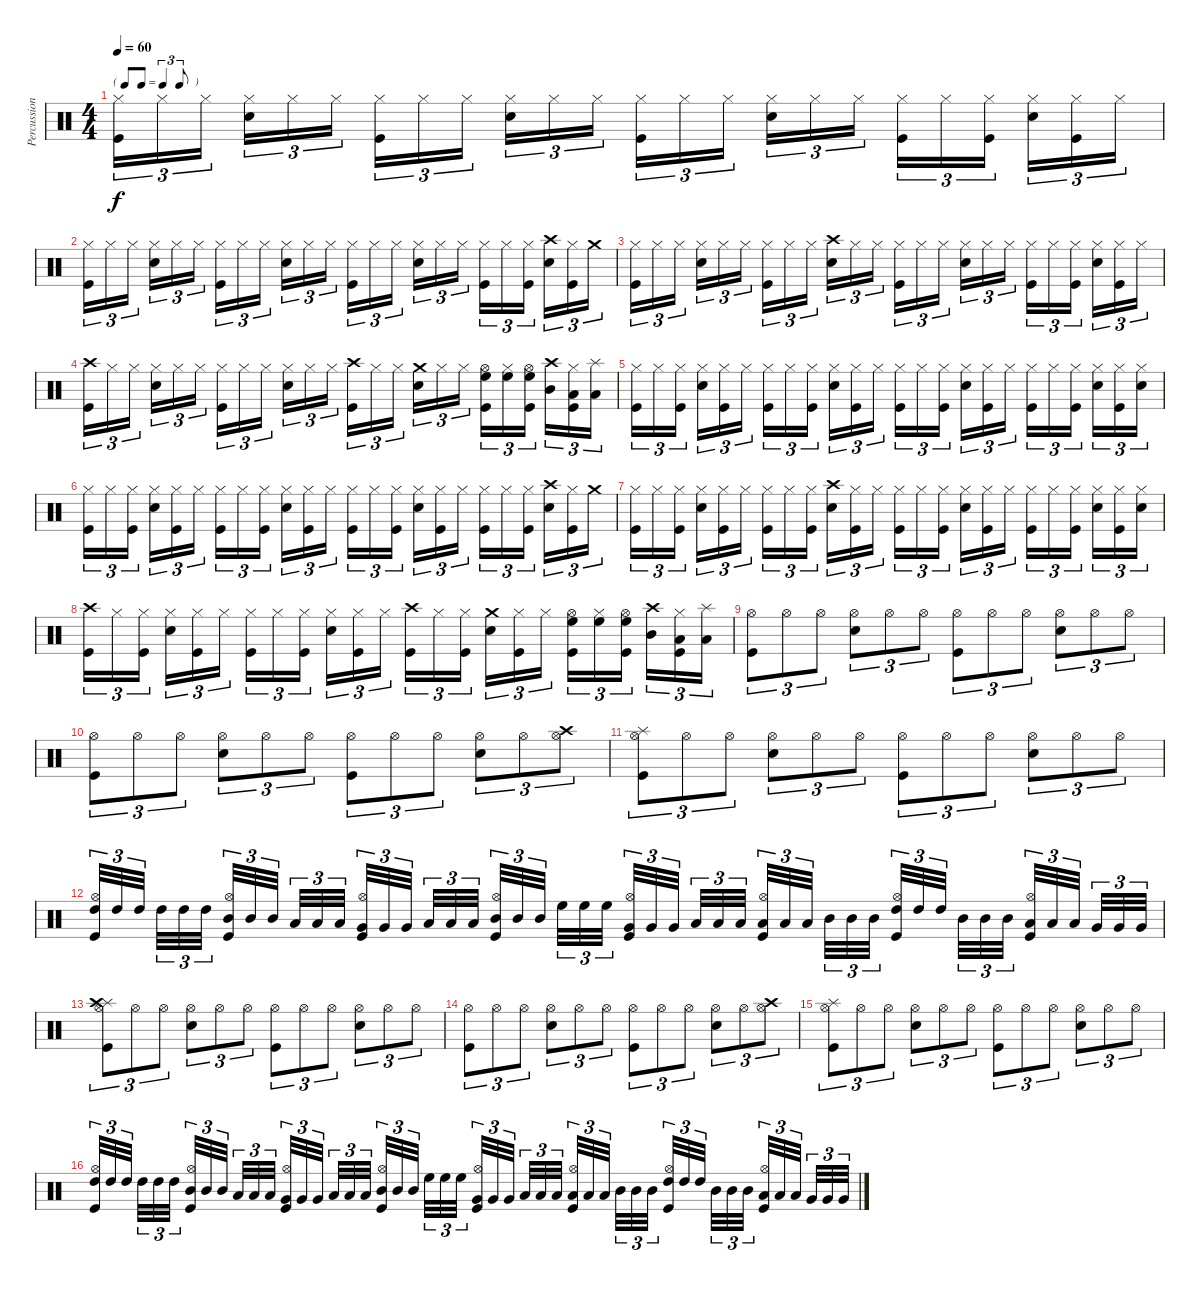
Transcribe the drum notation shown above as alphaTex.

\track ("Percussion" "Percussion") {instrument percussion}
\staff {score}
\articulation defaults
\ts (4 4)
\tf triplet8th
\tempo 60
\clef neutral
\ks c
("Hi-Hat (closed)" "Kick (hit)").16{tu (3 2) dy f} "Hi-Hat (closed)".16{tu (3 2)} "Hi-Hat (closed)".16{tu (3 2)} ("Hi-Hat (closed)" "Snare (hit) 2").16{tu (3 2)} "Hi-Hat (closed)".16{tu (3 2)} "Hi-Hat (closed)".16{tu (3 2)} ("Hi-Hat (closed)" "Kick (hit)").16{tu (3 2)} "Hi-Hat (closed)".16{tu (3 2)} "Hi-Hat (closed)".16{tu (3 2)} ("Hi-Hat (closed)" "Snare (hit) 2").16{tu (3 2)} "Hi-Hat (closed)".16{tu (3 2)} "Hi-Hat (closed)".16{tu (3 2)} ("Hi-Hat (closed)" "Kick (hit)").16{tu (3 2)} "Hi-Hat (closed)".16{tu (3 2)} "Hi-Hat (closed)".16{tu (3 2)} ("Hi-Hat (closed)" "Snare (hit) 2").16{tu (3 2)} "Hi-Hat (closed)".16{tu (3 2)} "Hi-Hat (closed)".16{tu (3 2)} ("Hi-Hat (closed)" "Kick (hit)").16{tu (3 2)} "Hi-Hat (closed)".16{tu (3 2)} ("Hi-Hat (closed)" "Kick (hit)").16{tu (3 2)} ("Hi-Hat (closed)" "Snare (hit) 2").16{tu (3 2)} ("Hi-Hat (closed)" "Kick (hit)").16{tu (3 2)} "Hi-Hat (closed)".16{tu (3 2)} |
("Hi-Hat (closed)" "Kick (hit)").16{tu (3 2)} "Hi-Hat (closed)".16{tu (3 2)} "Hi-Hat (closed)".16{tu (3 2)} ("Hi-Hat (closed)" "Snare (hit) 2").16{tu (3 2)} "Hi-Hat (closed)".16{tu (3 2)} "Hi-Hat (closed)".16{tu (3 2)} ("Hi-Hat (closed)" "Kick (hit)").16{tu (3 2)} "Hi-Hat (closed)".16{tu (3 2)} "Hi-Hat (closed)".16{tu (3 2)} ("Hi-Hat (closed)" "Snare (hit) 2").16{tu (3 2)} "Hi-Hat (closed)".16{tu (3 2)} "Hi-Hat (closed)".16{tu (3 2)} ("Hi-Hat (closed)" "Kick (hit)").16{tu (3 2)} "Hi-Hat (closed)".16{tu (3 2)} "Hi-Hat (closed)".16{tu (3 2)} ("Hi-Hat (closed)" "Snare (hit) 2").16{tu (3 2)} "Hi-Hat (closed)".16{tu (3 2)} "Hi-Hat (closed)".16{tu (3 2)} ("Hi-Hat (closed)" "Kick (hit)").16{tu (3 2)} "Hi-Hat (closed)".16{tu (3 2)} ("Hi-Hat (closed)" "Kick (hit)").16{tu (3 2)} ("Crash high (hit)" "Snare (hit) 2").16{tu (3 2)} ("Hi-Hat (closed)" "Kick (hit)").16{tu (3 2)} "Crash medium (hit)".16{tu (3 2)} |
("Hi-Hat (closed)" "Kick (hit)").16{tu (3 2)} "Hi-Hat (closed)".16{tu (3 2)} "Hi-Hat (closed)".16{tu (3 2)} ("Hi-Hat (closed)" "Snare (hit) 2").16{tu (3 2)} "Hi-Hat (closed)".16{tu (3 2)} "Hi-Hat (closed)".16{tu (3 2)} ("Hi-Hat (closed)" "Kick (hit)").16{tu (3 2)} "Hi-Hat (closed)".16{tu (3 2)} "Hi-Hat (closed)".16{tu (3 2)} ("Crash high (hit)" "Snare (hit) 2").16{tu (3 2)} "Hi-Hat (closed)".16{tu (3 2)} "Hi-Hat (closed)".16{tu (3 2)} ("Hi-Hat (closed)" "Kick (hit)").16{tu (3 2)} "Hi-Hat (closed)".16{tu (3 2)} "Hi-Hat (closed)".16{tu (3 2)} ("Hi-Hat (closed)" "Snare (hit) 2").16{tu (3 2)} "Hi-Hat (closed)".16{tu (3 2)} "Hi-Hat (closed)".16{tu (3 2)} ("Hi-Hat (closed)" "Kick (hit)").16{tu (3 2)} "Hi-Hat (closed)".16{tu (3 2)} ("Hi-Hat (closed)" "Kick (hit)").16{tu (3 2)} ("Hi-Hat (closed)" "Snare (hit) 2").16{tu (3 2)} ("Hi-Hat (closed)" "Kick (hit)").16{tu (3 2)} "Hi-Hat (closed)".16{tu (3 2)} |
("Crash high (hit)" "Kick (hit)").16{tu (3 2)} "Hi-Hat (closed)".16{tu (3 2)} "Hi-Hat (closed)".16{tu (3 2)} ("Hi-Hat (closed)" "Snare (hit) 2").16{tu (3 2)} "Hi-Hat (closed)".16{tu (3 2)} "Hi-Hat (closed)".16{tu (3 2)} ("Hi-Hat (closed)" "Kick (hit)").16{tu (3 2)} "Hi-Hat (closed)".16{tu (3 2)} "Hi-Hat (closed)".16{tu (3 2)} ("Hi-Hat (closed)" "Snare (hit) 2").16{tu (3 2)} "Hi-Hat (closed)".16{tu (3 2)} "Hi-Hat (closed)".16{tu (3 2)} ("Crash high (hit)" "Kick (hit)").16{tu (3 2)} "Hi-Hat (closed)".16{tu (3 2)} "Hi-Hat (closed)".16{tu (3 2)} ("Crash medium (hit)" "Snare (hit) 2").16{tu (3 2)} "Hi-Hat (closed)".16{tu (3 2)} "Hi-Hat (closed)".16{tu (3 2)} ("Hi-Hat (open)" "High Floor Tom (hit)" "Kick (hit)").16{tu (3 2)} ("Hi-Hat (closed)" "High Floor Tom (hit)").16{tu (3 2)} ("Hi-Hat (open)" "High Floor Tom (hit)" "Kick (hit)").16{tu (3 2)} ("Crash high (hit)" "Mid Tom (hit)").16{tu (3 2)} ("Hi-Hat (closed)" "Low Tom (hit)" "Kick (hit)").16{tu (3 2)} ("Splash (hit)" "Low Floor Tom (hit)").16{tu (3 2)} |
("Hi-Hat (closed)" "Kick (hit)").16{tu (3 2)} "Hi-Hat (closed)".16{tu (3 2)} ("Hi-Hat (closed)" "Kick (hit)").16{tu (3 2)} ("Hi-Hat (closed)" "Snare (hit) 2").16{tu (3 2)} ("Hi-Hat (closed)" "Kick (hit)").16{tu (3 2)} "Hi-Hat (closed)".16{tu (3 2)} ("Hi-Hat (closed)" "Kick (hit)").16{tu (3 2)} "Hi-Hat (closed)".16{tu (3 2)} ("Hi-Hat (closed)" "Kick (hit)").16{tu (3 2)} ("Hi-Hat (closed)" "Snare (hit) 2").16{tu (3 2)} ("Hi-Hat (closed)" "Kick (hit)").16{tu (3 2)} "Hi-Hat (closed)".16{tu (3 2)} ("Hi-Hat (closed)" "Kick (hit)").16{tu (3 2)} "Hi-Hat (closed)".16{tu (3 2)} ("Hi-Hat (closed)" "Kick (hit)").16{tu (3 2)} ("Hi-Hat (closed)" "Snare (hit) 2").16{tu (3 2)} ("Hi-Hat (closed)" "Kick (hit)").16{tu (3 2)} "Hi-Hat (closed)".16{tu (3 2)} ("Hi-Hat (closed)" "Kick (hit)").16{tu (3 2)} "Hi-Hat (closed)".16{tu (3 2)} ("Hi-Hat (closed)" "Kick (hit)").16{tu (3 2)} ("Hi-Hat (closed)" "Snare (hit) 2").16{tu (3 2)} ("Hi-Hat (closed)" "Kick (hit)").16{tu (3 2)} ("Hi-Hat (closed)" "Snare (hit) 2").16{tu (3 2)} |
("Hi-Hat (closed)" "Kick (hit)").16{tu (3 2)} "Hi-Hat (closed)".16{tu (3 2)} ("Hi-Hat (closed)" "Kick (hit)").16{tu (3 2)} ("Hi-Hat (closed)" "Snare (hit) 2").16{tu (3 2)} ("Hi-Hat (closed)" "Kick (hit)").16{tu (3 2)} "Hi-Hat (closed)".16{tu (3 2)} ("Hi-Hat (closed)" "Kick (hit)").16{tu (3 2)} "Hi-Hat (closed)".16{tu (3 2)} ("Hi-Hat (closed)" "Kick (hit)").16{tu (3 2)} ("Hi-Hat (closed)" "Snare (hit) 2").16{tu (3 2)} ("Hi-Hat (closed)" "Kick (hit)").16{tu (3 2)} "Hi-Hat (closed)".16{tu (3 2)} ("Hi-Hat (closed)" "Kick (hit)").16{tu (3 2)} "Hi-Hat (closed)".16{tu (3 2)} ("Hi-Hat (closed)" "Kick (hit)").16{tu (3 2)} ("Hi-Hat (closed)" "Snare (hit) 2").16{tu (3 2)} ("Hi-Hat (closed)" "Kick (hit)").16{tu (3 2)} "Hi-Hat (closed)".16{tu (3 2)} ("Hi-Hat (closed)" "Kick (hit)").16{tu (3 2)} "Hi-Hat (closed)".16{tu (3 2)} ("Hi-Hat (closed)" "Kick (hit)").16{tu (3 2)} ("Crash high (hit)" "Snare (hit) 2").16{tu (3 2)} ("Hi-Hat (closed)" "Kick (hit)").16{tu (3 2)} "Crash medium (hit)".16{tu (3 2)} |
("Hi-Hat (closed)" "Kick (hit)").16{tu (3 2)} "Hi-Hat (closed)".16{tu (3 2)} ("Hi-Hat (closed)" "Kick (hit)").16{tu (3 2)} ("Hi-Hat (closed)" "Snare (hit) 2").16{tu (3 2)} ("Hi-Hat (closed)" "Kick (hit)").16{tu (3 2)} "Hi-Hat (closed)".16{tu (3 2)} ("Hi-Hat (closed)" "Kick (hit)").16{tu (3 2)} "Hi-Hat (closed)".16{tu (3 2)} ("Hi-Hat (closed)" "Kick (hit)").16{tu (3 2)} ("Crash high (hit)" "Snare (hit) 2").16{tu (3 2)} ("Hi-Hat (closed)" "Kick (hit)").16{tu (3 2)} "Hi-Hat (closed)".16{tu (3 2)} ("Hi-Hat (closed)" "Kick (hit)").16{tu (3 2)} "Hi-Hat (closed)".16{tu (3 2)} ("Hi-Hat (closed)" "Kick (hit)").16{tu (3 2)} ("Hi-Hat (closed)" "Snare (hit) 2").16{tu (3 2)} ("Hi-Hat (closed)" "Kick (hit)").16{tu (3 2)} "Hi-Hat (closed)".16{tu (3 2)} ("Hi-Hat (closed)" "Kick (hit)").16{tu (3 2)} "Hi-Hat (closed)".16{tu (3 2)} ("Hi-Hat (closed)" "Kick (hit)").16{tu (3 2)} ("Hi-Hat (closed)" "Snare (hit) 2").16{tu (3 2)} ("Hi-Hat (closed)" "Kick (hit)").16{tu (3 2)} ("Hi-Hat (closed)" "Snare (hit) 2").16{tu (3 2)} |
("Crash high (hit)" "Kick (hit)").16{tu (3 2)} "Hi-Hat (closed)".16{tu (3 2)} ("Hi-Hat (closed)" "Kick (hit)").16{tu (3 2)} ("Hi-Hat (closed)" "Snare (hit) 2").16{tu (3 2)} ("Hi-Hat (closed)" "Kick (hit)").16{tu (3 2)} "Hi-Hat (closed)".16{tu (3 2)} ("Hi-Hat (closed)" "Kick (hit)").16{tu (3 2)} "Hi-Hat (closed)".16{tu (3 2)} ("Hi-Hat (closed)" "Kick (hit)").16{tu (3 2)} ("Hi-Hat (closed)" "Snare (hit) 2").16{tu (3 2)} ("Hi-Hat (closed)" "Kick (hit)").16{tu (3 2)} "Hi-Hat (closed)".16{tu (3 2)} ("Crash high (hit)" "Kick (hit)").16{tu (3 2)} "Hi-Hat (closed)".16{tu (3 2)} ("Hi-Hat (closed)" "Kick (hit)").16{tu (3 2)} ("Crash medium (hit)" "Snare (hit) 2").16{tu (3 2)} ("Hi-Hat (closed)" "Kick (hit)").16{tu (3 2)} "Hi-Hat (closed)".16{tu (3 2)} ("Hi-Hat (open)" "High Floor Tom (hit)" "Kick (hit)").16{tu (3 2)} ("Hi-Hat (closed)" "High Floor Tom (hit)").16{tu (3 2)} ("Hi-Hat (open)" "High Floor Tom (hit)" "Kick (hit)").16{tu (3 2)} ("Crash high (hit)" "Mid Tom (hit)").16{tu (3 2)} ("Hi-Hat (closed)" "Low Tom (hit)" "Kick (hit)").16{tu (3 2)} ("Splash (hit)" "Low Floor Tom (hit)").16{tu (3 2)} |
("Hi-Hat (open)" "Kick (hit)").8{tu (3 2)} "Hi-Hat (open)".8{tu (3 2)} "Hi-Hat (open)".8{tu (3 2)} ("Hi-Hat (open)" "Snare (hit) 2").8{tu (3 2)} "Hi-Hat (open)".8{tu (3 2)} "Hi-Hat (open)".8{tu (3 2)} ("Hi-Hat (open)" "Kick (hit)").8{tu (3 2)} "Hi-Hat (open)".8{tu (3 2)} "Hi-Hat (open)".8{tu (3 2)} ("Hi-Hat (open)" "Snare (hit) 2").8{tu (3 2)} "Hi-Hat (open)".8{tu (3 2)} "Hi-Hat (open)".8{tu (3 2)} |
("Hi-Hat (open)" "Kick (hit)").8{tu (3 2)} "Hi-Hat (open)".8{tu (3 2)} "Hi-Hat (open)".8{tu (3 2)} ("Hi-Hat (open)" "Snare (hit) 2").8{tu (3 2)} "Hi-Hat (open)".8{tu (3 2)} "Hi-Hat (open)".8{tu (3 2)} ("Hi-Hat (open)" "Kick (hit)").8{tu (3 2)} "Hi-Hat (open)".8{tu (3 2)} "Hi-Hat (open)".8{tu (3 2)} ("Hi-Hat (open)" "Snare (hit) 2").8{tu (3 2)} "Hi-Hat (open)".8{tu (3 2)} ("Crash high (hit)" "Hi-Hat (open)").8{tu (3 2)} |
("Splash (hit)" "Hi-Hat (open)" "Kick (hit)").8{tu (3 2)} "Hi-Hat (open)".8{tu (3 2)} "Hi-Hat (open)".8{tu (3 2)} ("Hi-Hat (open)" "Snare (hit) 2").8{tu (3 2)} "Hi-Hat (open)".8{tu (3 2)} "Hi-Hat (open)".8{tu (3 2)} ("Hi-Hat (open)" "Kick (hit)").8{tu (3 2)} "Hi-Hat (open)".8{tu (3 2)} "Hi-Hat (open)".8{tu (3 2)} ("Hi-Hat (open)" "Snare (hit) 2").8{tu (3 2)} "Hi-Hat (open)".8{tu (3 2)} "Hi-Hat (open)".8{tu (3 2)} |
("Hi-Hat (open)" "High Tom (hit)" "Kick (hit)").32{tu (3 2)} "High Tom (hit)".32{tu (3 2)} "High Tom (hit)".32{tu (3 2)} "High Tom (hit)".32{tu (3 2)} "High Tom (hit)".32{tu (3 2)} "High Tom (hit)".32{tu (3 2)} ("Hi-Hat (open)" "Mid Tom (hit)" "Kick (hit)").32{tu (3 2)} "Mid Tom (hit)".32{tu (3 2)} "Mid Tom (hit)".32{tu (3 2)} "Low Tom (hit)".32{tu (3 2)} "Low Tom (hit)".32{tu (3 2)} "Low Tom (hit)".32{tu (3 2)} ("Hi-Hat (open)" "Very Low Tom (hit)" "Kick (hit)").32{tu (3 2)} "Very Low Tom (hit)".32{tu (3 2)} "Very Low Tom (hit)".32{tu (3 2)} "Low Tom (hit)".32{tu (3 2)} "Low Tom (hit)".32{tu (3 2)} "Low Tom (hit)".32{tu (3 2)} ("Hi-Hat (open)" "Mid Tom (hit)" "Kick (hit)").32{tu (3 2)} "Mid Tom (hit)".32{tu (3 2)} "Mid Tom (hit)".32{tu (3 2)} "High Floor Tom (hit)".32{tu (3 2)} "High Floor Tom (hit)".32{tu (3 2)} "High Floor Tom (hit)".32{tu (3 2)} ("Hi-Hat (open)" "Very Low Tom (hit)" "Kick (hit)").32{tu (3 2)} "Very Low Tom (hit)".32{tu (3 2)} "Very Low Tom (hit)".32{tu (3 2)} "Low Floor Tom (hit)".32{tu (3 2)} "Low Floor Tom (hit)".32{tu (3 2)} "Low Floor Tom (hit)".32{tu (3 2)} ("Hi-Hat (open)" "Low Tom (hit)" "Kick (hit)").32{tu (3 2)} "Low Tom (hit)".32{tu (3 2)} "Low Tom (hit)".32{tu (3 2)} "Mid Tom (hit)".32{tu (3 2)} "Mid Tom (hit)".32{tu (3 2)} "Mid Tom (hit)".32{tu (3 2)} ("Hi-Hat (open)" "High Tom (hit)" "Kick (hit)").32{tu (3 2)} "High Tom (hit)".32{tu (3 2)} "High Tom (hit)".32{tu (3 2)} "Mid Tom (hit)".32{tu (3 2)} "Mid Tom (hit)".32{tu (3 2)} "Mid Tom (hit)".32{tu (3 2)} ("Hi-Hat (open)" "Low Tom (hit)" "Kick (hit)").32{tu (3 2)} "Low Tom (hit)".32{tu (3 2)} "Low Tom (hit)".32{tu (3 2)} "Very Low Tom (hit)".32{tu (3 2)} "Very Low Tom (hit)".32{tu (3 2)} "Very Low Tom (hit)".32{tu (3 2)} |
("Splash (hit)" "Crash high (hit)" "Hi-Hat (open)" "Kick (hit)").8{tu (3 2)} "Hi-Hat (open)".8{tu (3 2)} "Hi-Hat (open)".8{tu (3 2)} ("Hi-Hat (open)" "Snare (hit) 2").8{tu (3 2)} "Hi-Hat (open)".8{tu (3 2)} "Hi-Hat (open)".8{tu (3 2)} ("Hi-Hat (open)" "Kick (hit)").8{tu (3 2)} "Hi-Hat (open)".8{tu (3 2)} "Hi-Hat (open)".8{tu (3 2)} ("Hi-Hat (open)" "Snare (hit) 2").8{tu (3 2)} "Hi-Hat (open)".8{tu (3 2)} "Hi-Hat (open)".8{tu (3 2)} |
("Hi-Hat (open)" "Kick (hit)").8{tu (3 2)} "Hi-Hat (open)".8{tu (3 2)} "Hi-Hat (open)".8{tu (3 2)} ("Hi-Hat (open)" "Snare (hit) 2").8{tu (3 2)} "Hi-Hat (open)".8{tu (3 2)} "Hi-Hat (open)".8{tu (3 2)} ("Hi-Hat (open)" "Kick (hit)").8{tu (3 2)} "Hi-Hat (open)".8{tu (3 2)} "Hi-Hat (open)".8{tu (3 2)} ("Hi-Hat (open)" "Snare (hit) 2").8{tu (3 2)} "Hi-Hat (open)".8{tu (3 2)} ("Crash high (hit)" "Hi-Hat (open)").8{tu (3 2)} |
("Splash (hit)" "Hi-Hat (open)" "Kick (hit)").8{tu (3 2)} "Hi-Hat (open)".8{tu (3 2)} "Hi-Hat (open)".8{tu (3 2)} ("Hi-Hat (open)" "Snare (hit) 2").8{tu (3 2)} "Hi-Hat (open)".8{tu (3 2)} "Hi-Hat (open)".8{tu (3 2)} ("Hi-Hat (open)" "Kick (hit)").8{tu (3 2)} "Hi-Hat (open)".8{tu (3 2)} "Hi-Hat (open)".8{tu (3 2)} ("Hi-Hat (open)" "Snare (hit) 2").8{tu (3 2)} "Hi-Hat (open)".8{tu (3 2)} "Hi-Hat (open)".8{tu (3 2)} |
("Hi-Hat (open)" "High Tom (hit)" "Kick (hit)").32{tu (3 2)} "High Tom (hit)".32{tu (3 2)} "High Tom (hit)".32{tu (3 2)} "High Tom (hit)".32{tu (3 2)} "High Tom (hit)".32{tu (3 2)} "High Tom (hit)".32{tu (3 2)} ("Hi-Hat (open)" "Mid Tom (hit)" "Kick (hit)").32{tu (3 2)} "Mid Tom (hit)".32{tu (3 2)} "Mid Tom (hit)".32{tu (3 2)} "Low Tom (hit)".32{tu (3 2)} "Low Tom (hit)".32{tu (3 2)} "Low Tom (hit)".32{tu (3 2)} ("Hi-Hat (open)" "Very Low Tom (hit)" "Kick (hit)").32{tu (3 2)} "Very Low Tom (hit)".32{tu (3 2)} "Very Low Tom (hit)".32{tu (3 2)} "Low Tom (hit)".32{tu (3 2)} "Low Tom (hit)".32{tu (3 2)} "Low Tom (hit)".32{tu (3 2)} ("Hi-Hat (open)" "Mid Tom (hit)" "Kick (hit)").32{tu (3 2)} "Mid Tom (hit)".32{tu (3 2)} "Mid Tom (hit)".32{tu (3 2)} "High Floor Tom (hit)".32{tu (3 2)} "High Floor Tom (hit)".32{tu (3 2)} "High Floor Tom (hit)".32{tu (3 2)} ("Hi-Hat (open)" "Very Low Tom (hit)" "Kick (hit)").32{tu (3 2)} "Very Low Tom (hit)".32{tu (3 2)} "Very Low Tom (hit)".32{tu (3 2)} "Low Floor Tom (hit)".32{tu (3 2)} "Low Floor Tom (hit)".32{tu (3 2)} "Low Floor Tom (hit)".32{tu (3 2)} ("Hi-Hat (open)" "Low Tom (hit)" "Kick (hit)").32{tu (3 2)} "Low Tom (hit)".32{tu (3 2)} "Low Tom (hit)".32{tu (3 2)} "Mid Tom (hit)".32{tu (3 2)} "Mid Tom (hit)".32{tu (3 2)} "Mid Tom (hit)".32{tu (3 2)} ("Hi-Hat (open)" "High Tom (hit)" "Kick (hit)").32{tu (3 2)} "High Tom (hit)".32{tu (3 2)} "High Tom (hit)".32{tu (3 2)} "Mid Tom (hit)".32{tu (3 2)} "Mid Tom (hit)".32{tu (3 2)} "Mid Tom (hit)".32{tu (3 2)} ("Hi-Hat (open)" "Low Tom (hit)" "Kick (hit)").32{tu (3 2)} "Low Tom (hit)".32{tu (3 2)} "Low Tom (hit)".32{tu (3 2)} "Very Low Tom (hit)".32{tu (3 2)} "Very Low Tom (hit)".32{tu (3 2)} "Very Low Tom (hit)".32{tu (3 2)}
